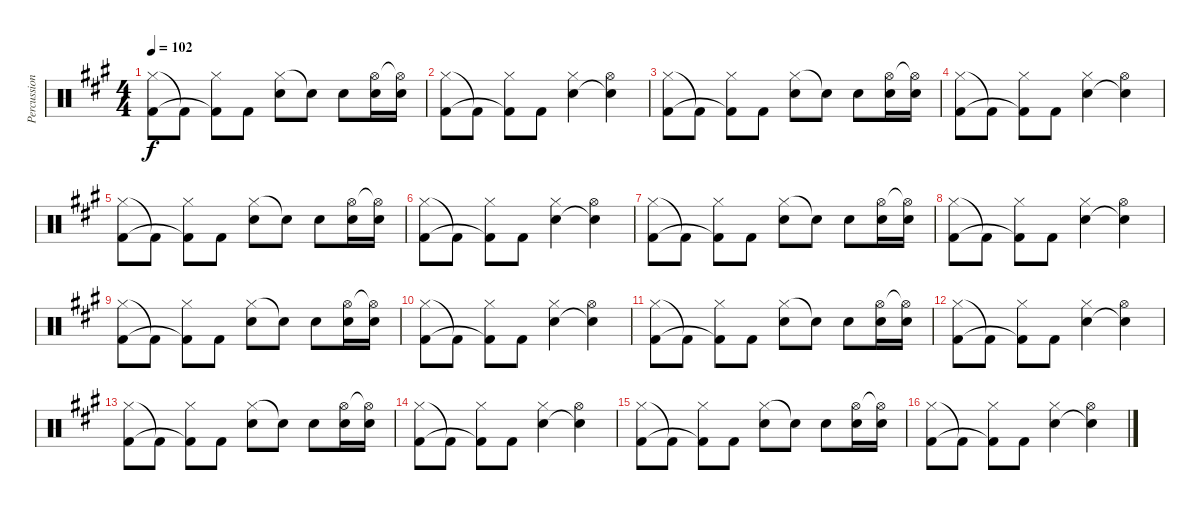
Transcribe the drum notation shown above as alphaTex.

\track ("Percussion" "Percussion") {instrument percussion}
\staff {score}
\articulation defaults
\ts (4 4)
\tempo 102
\clef neutral
\ks a
("Hi-Hat (closed)" "Kick (hit) 2").8{dy f} "Kick (hit) 2"{t}.8 ("Hi-Hat (closed)" "Kick (hit) 2"{t}).8 "Kick (hit) 2".8 ("Hi-Hat (closed)" "Electric Snare (hit)").8 "Electric Snare (hit)"{t}.8 "Electric Snare (hit)".8 ("Hi-Hat (open)" "Electric Snare (hit)").16 ("Hi-Hat (open)"{t} "Electric Snare (hit)").16 |
("Hi-Hat (closed)" "Kick (hit) 2").8 "Kick (hit) 2"{t}.8 ("Hi-Hat (closed)" "Kick (hit) 2"{t}).8 "Kick (hit) 2".8 ("Hi-Hat (closed)" "Electric Snare (hit)").4 ("Hi-Hat (open)" "Electric Snare (hit)"{t}).4 |
("Hi-Hat (closed)" "Kick (hit) 2").8 "Kick (hit) 2"{t}.8 ("Hi-Hat (closed)" "Kick (hit) 2"{t}).8 "Kick (hit) 2".8 ("Hi-Hat (closed)" "Electric Snare (hit)").8 "Electric Snare (hit)"{t}.8 "Electric Snare (hit)".8 ("Hi-Hat (open)" "Electric Snare (hit)").16 ("Hi-Hat (open)"{t} "Electric Snare (hit)").16 |
("Hi-Hat (closed)" "Kick (hit) 2").8 "Kick (hit) 2"{t}.8 ("Hi-Hat (closed)" "Kick (hit) 2"{t}).8 "Kick (hit) 2".8 ("Hi-Hat (closed)" "Electric Snare (hit)").4 ("Hi-Hat (open)" "Electric Snare (hit)"{t}).4 |
("Hi-Hat (closed)" "Kick (hit) 2").8 "Kick (hit) 2"{t}.8 ("Hi-Hat (closed)" "Kick (hit) 2"{t}).8 "Kick (hit) 2".8 ("Hi-Hat (closed)" "Electric Snare (hit)").8 "Electric Snare (hit)"{t}.8 "Electric Snare (hit)".8 ("Hi-Hat (open)" "Electric Snare (hit)").16 ("Hi-Hat (open)"{t} "Electric Snare (hit)").16 |
("Hi-Hat (closed)" "Kick (hit) 2").8 "Kick (hit) 2"{t}.8 ("Hi-Hat (closed)" "Kick (hit) 2"{t}).8 "Kick (hit) 2".8 ("Hi-Hat (closed)" "Electric Snare (hit)").4 ("Hi-Hat (open)" "Electric Snare (hit)"{t}).4 |
("Hi-Hat (closed)" "Kick (hit) 2").8 "Kick (hit) 2"{t}.8 ("Hi-Hat (closed)" "Kick (hit) 2"{t}).8 "Kick (hit) 2".8 ("Hi-Hat (closed)" "Electric Snare (hit)").8 "Electric Snare (hit)"{t}.8 "Electric Snare (hit)".8 ("Hi-Hat (open)" "Electric Snare (hit)").16 ("Hi-Hat (open)"{t} "Electric Snare (hit)").16 |
("Hi-Hat (closed)" "Kick (hit) 2").8 "Kick (hit) 2"{t}.8 ("Hi-Hat (closed)" "Kick (hit) 2"{t}).8 "Kick (hit) 2".8 ("Hi-Hat (closed)" "Electric Snare (hit)").4 ("Hi-Hat (open)" "Electric Snare (hit)"{t}).4 |
("Hi-Hat (closed)" "Kick (hit) 2").8 "Kick (hit) 2"{t}.8 ("Hi-Hat (closed)" "Kick (hit) 2"{t}).8 "Kick (hit) 2".8 ("Hi-Hat (closed)" "Electric Snare (hit)").8 "Electric Snare (hit)"{t}.8 "Electric Snare (hit)".8 ("Hi-Hat (open)" "Electric Snare (hit)").16 ("Hi-Hat (open)"{t} "Electric Snare (hit)").16 |
("Hi-Hat (closed)" "Kick (hit) 2").8 "Kick (hit) 2"{t}.8 ("Hi-Hat (closed)" "Kick (hit) 2"{t}).8 "Kick (hit) 2".8 ("Hi-Hat (closed)" "Electric Snare (hit)").4 ("Hi-Hat (open)" "Electric Snare (hit)"{t}).4 |
("Hi-Hat (closed)" "Kick (hit) 2").8 "Kick (hit) 2"{t}.8 ("Hi-Hat (closed)" "Kick (hit) 2"{t}).8 "Kick (hit) 2".8 ("Hi-Hat (closed)" "Electric Snare (hit)").8 "Electric Snare (hit)"{t}.8 "Electric Snare (hit)".8 ("Hi-Hat (open)" "Electric Snare (hit)").16 ("Hi-Hat (open)"{t} "Electric Snare (hit)").16 |
("Hi-Hat (closed)" "Kick (hit) 2").8 "Kick (hit) 2"{t}.8 ("Hi-Hat (closed)" "Kick (hit) 2"{t}).8 "Kick (hit) 2".8 ("Hi-Hat (closed)" "Electric Snare (hit)").4 ("Hi-Hat (open)" "Electric Snare (hit)"{t}).4 |
("Hi-Hat (closed)" "Kick (hit) 2").8 "Kick (hit) 2"{t}.8 ("Hi-Hat (closed)" "Kick (hit) 2"{t}).8 "Kick (hit) 2".8 ("Hi-Hat (closed)" "Electric Snare (hit)").8 "Electric Snare (hit)"{t}.8 "Electric Snare (hit)".8 ("Hi-Hat (open)" "Electric Snare (hit)").16 ("Hi-Hat (open)"{t} "Electric Snare (hit)").16 |
("Hi-Hat (closed)" "Kick (hit) 2").8 "Kick (hit) 2"{t}.8 ("Hi-Hat (closed)" "Kick (hit) 2"{t}).8 "Kick (hit) 2".8 ("Hi-Hat (closed)" "Electric Snare (hit)").4 ("Hi-Hat (open)" "Electric Snare (hit)"{t}).4 |
("Hi-Hat (closed)" "Kick (hit) 2").8 "Kick (hit) 2"{t}.8 ("Hi-Hat (closed)" "Kick (hit) 2"{t}).8 "Kick (hit) 2".8 ("Hi-Hat (closed)" "Electric Snare (hit)").8 "Electric Snare (hit)"{t}.8 "Electric Snare (hit)".8 ("Hi-Hat (open)" "Electric Snare (hit)").16 ("Hi-Hat (open)"{t} "Electric Snare (hit)").16 |
("Hi-Hat (closed)" "Kick (hit) 2").8 "Kick (hit) 2"{t}.8 ("Hi-Hat (closed)" "Kick (hit) 2"{t}).8 "Kick (hit) 2".8 ("Hi-Hat (closed)" "Electric Snare (hit)").4 ("Hi-Hat (open)" "Electric Snare (hit)"{t}).4
